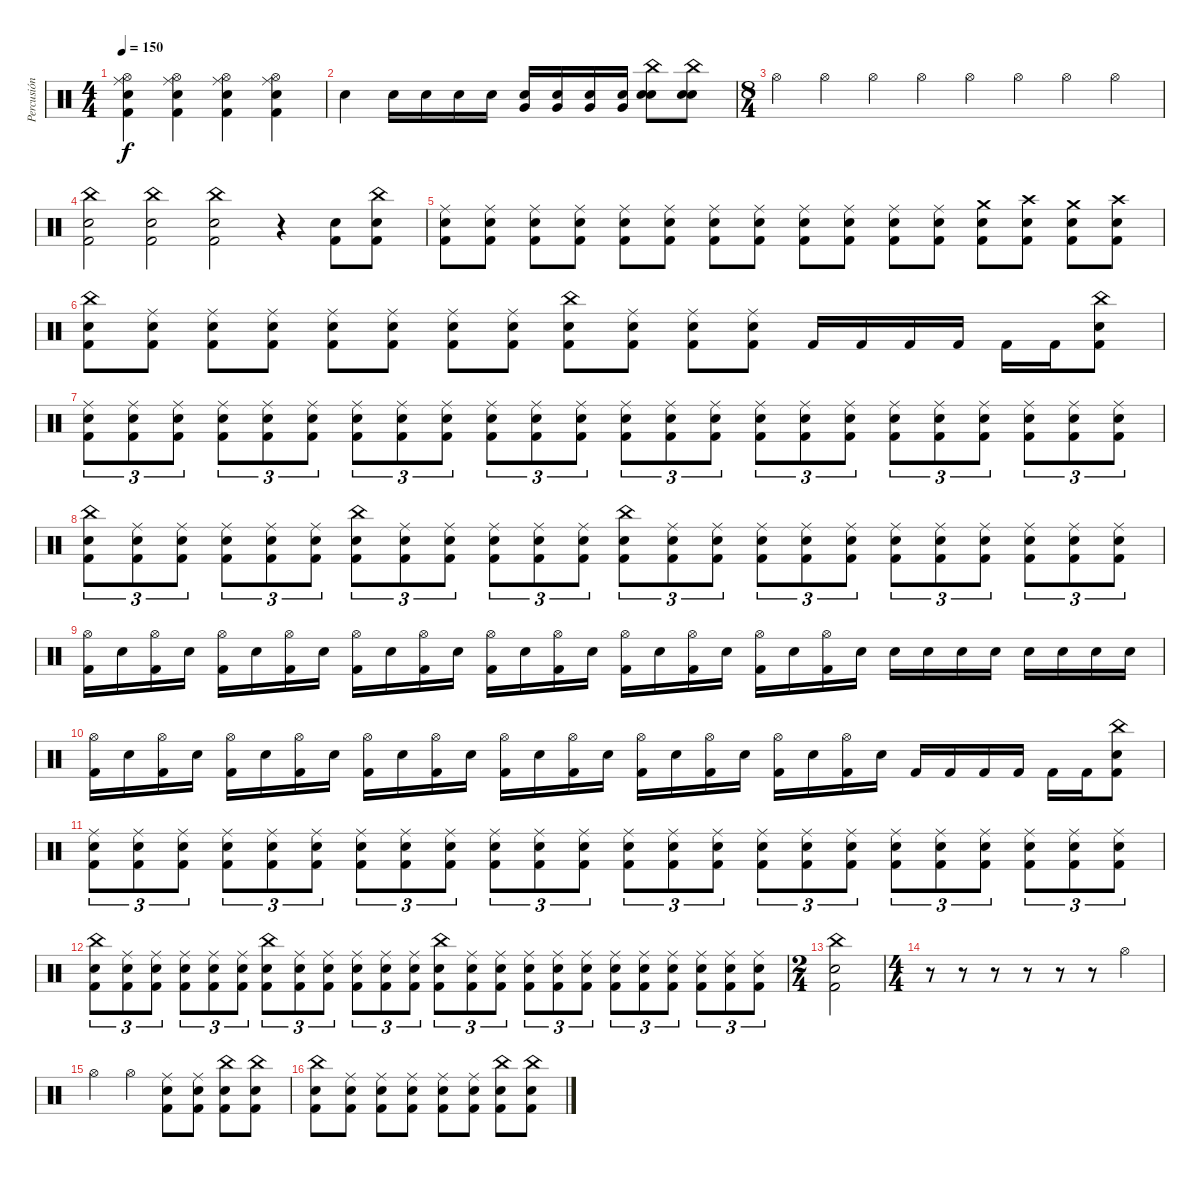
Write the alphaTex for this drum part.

\track ("Percusión" "Percusión") {instrument percussion}
\staff {score}
\articulation defaults
\ts (4 4)
\tempo 150
\clef neutral
\ks c
("Ride (middle)" "Hi-Hat (open)" "Electric Snare (hit)" "Kick (hit) 2").4{dy f} ("Ride (middle)" "Hi-Hat (open)" "Electric Snare (hit)" "Kick (hit) 2").4 ("Ride (middle)" "Hi-Hat (open)" "Electric Snare (hit)" "Kick (hit) 2").4 ("Ride (middle)" "Hi-Hat (open)" "Electric Snare (hit)" "Kick (hit) 2").4 |
"Electric Snare (hit)".4 "Electric Snare (hit)".16 "Electric Snare (hit)".16 "Electric Snare (hit)".16 "Electric Snare (hit)".16 ("Snare (hit) 2" "Very Low Tom (hit)").16 ("Snare (hit) 2" "Very Low Tom (hit)").16 ("Snare (hit) 2" "Very Low Tom (hit)").16 ("Snare (hit) 2" "Very Low Tom (hit)").16 ("China (hit)" "Electric Snare (hit)" "Snare (hit) 2").8 ("China (hit)" "Electric Snare (hit)" "Snare (hit) 2").8 |
\ts (8 4)
"Hi-Hat (open)".4 "Hi-Hat (open)".4 "Hi-Hat (open)".4 "Hi-Hat (open)".4 "Hi-Hat (open)".4 "Hi-Hat (open)".4 "Hi-Hat (open)".4 "Hi-Hat (open)".4 |
("China (hit)" "Electric Snare (hit)" "Kick (hit) 2").2 ("China (hit)" "Electric Snare (hit)" "Kick (hit) 2").2 ("China (hit)" "Electric Snare (hit)" "Kick (hit) 2").2 r.4 ("Electric Snare (hit)" "Kick (hit) 2").8 ("China (hit)" "Electric Snare (hit)" "Kick (hit) 2").8 |
("Ride (middle)" "Electric Snare (hit)" "Kick (hit) 2").8 ("Ride (middle)" "Electric Snare (hit)" "Kick (hit) 2").8 ("Ride (middle)" "Electric Snare (hit)" "Kick (hit) 2").8 ("Ride (middle)" "Electric Snare (hit)" "Kick (hit) 2").8 ("Ride (middle)" "Electric Snare (hit)" "Kick (hit) 2").8 ("Ride (middle)" "Electric Snare (hit)" "Kick (hit) 2").8 ("Ride (middle)" "Electric Snare (hit)" "Kick (hit) 2").8 ("Ride (middle)" "Electric Snare (hit)" "Kick (hit) 2").8 ("Ride (middle)" "Electric Snare (hit)" "Kick (hit) 2").8 ("Ride (middle)" "Electric Snare (hit)" "Kick (hit) 2").8 ("Ride (middle)" "Electric Snare (hit)" "Kick (hit) 2").8 ("Ride (middle)" "Electric Snare (hit)" "Kick (hit) 2").8 ("Crash medium (hit)" "Electric Snare (hit)" "Kick (hit) 2").8 ("Crash high (hit)" "Electric Snare (hit)" "Kick (hit) 2").8 ("Crash medium (hit)" "Electric Snare (hit)" "Kick (hit) 2").8 ("Crash high (hit)" "Electric Snare (hit)" "Kick (hit) 2").8 |
("China (hit)" "Electric Snare (hit)" "Kick (hit) 2").8 ("Ride (middle)" "Electric Snare (hit)" "Kick (hit) 2").8 ("Ride (middle)" "Electric Snare (hit)" "Kick (hit) 2").8 ("Ride (middle)" "Electric Snare (hit)" "Kick (hit) 2").8 ("Ride (middle)" "Electric Snare (hit)" "Kick (hit) 2").8 ("Ride (middle)" "Electric Snare (hit)" "Kick (hit) 2").8 ("Ride (middle)" "Electric Snare (hit)" "Kick (hit) 2").8 ("Ride (middle)" "Electric Snare (hit)" "Kick (hit) 2").8 ("China (hit)" "Electric Snare (hit)" "Kick (hit) 2").8 ("Ride (middle)" "Electric Snare (hit)" "Kick (hit) 2").8 ("Ride (middle)" "Electric Snare (hit)" "Kick (hit) 2").8 ("Ride (middle)" "Electric Snare (hit)" "Kick (hit) 2").8 "Kick (hit) 2".16 "Kick (hit) 2".16 "Kick (hit) 2".16 "Kick (hit) 2".16 "Kick (hit) 2".16 "Kick (hit) 2".16 ("China (hit)" "Electric Snare (hit)" "Kick (hit) 2").8 |
("Ride (middle)" "Electric Snare (hit)" "Kick (hit) 2").8{tu (3 2)} ("Ride (middle)" "Electric Snare (hit)" "Kick (hit) 2").8{tu (3 2)} ("Ride (middle)" "Electric Snare (hit)" "Kick (hit) 2").8{tu (3 2)} ("Ride (middle)" "Electric Snare (hit)" "Kick (hit) 2").8{tu (3 2)} ("Ride (middle)" "Electric Snare (hit)" "Kick (hit) 2").8{tu (3 2)} ("Ride (middle)" "Electric Snare (hit)" "Kick (hit) 2").8{tu (3 2)} ("Ride (middle)" "Electric Snare (hit)" "Kick (hit) 2").8{tu (3 2)} ("Ride (middle)" "Electric Snare (hit)" "Kick (hit) 2").8{tu (3 2)} ("Ride (middle)" "Electric Snare (hit)" "Kick (hit) 2").8{tu (3 2)} ("Ride (middle)" "Electric Snare (hit)" "Kick (hit) 2").8{tu (3 2)} ("Ride (middle)" "Electric Snare (hit)" "Kick (hit) 2").8{tu (3 2)} ("Ride (middle)" "Electric Snare (hit)" "Kick (hit) 2").8{tu (3 2)} ("Ride (middle)" "Electric Snare (hit)" "Kick (hit) 2").8{tu (3 2)} ("Ride (middle)" "Electric Snare (hit)" "Kick (hit) 2").8{tu (3 2)} ("Ride (middle)" "Electric Snare (hit)" "Kick (hit) 2").8{tu (3 2)} ("Ride (middle)" "Electric Snare (hit)" "Kick (hit) 2").8{tu (3 2)} ("Ride (middle)" "Electric Snare (hit)" "Kick (hit) 2").8{tu (3 2)} ("Ride (middle)" "Electric Snare (hit)" "Kick (hit) 2").8{tu (3 2)} ("Ride (middle)" "Electric Snare (hit)" "Kick (hit) 2").8{tu (3 2)} ("Ride (middle)" "Electric Snare (hit)" "Kick (hit) 2").8{tu (3 2)} ("Ride (middle)" "Electric Snare (hit)" "Kick (hit) 2").8{tu (3 2)} ("Ride (middle)" "Electric Snare (hit)" "Kick (hit) 2").8{tu (3 2)} ("Ride (middle)" "Electric Snare (hit)" "Kick (hit) 2").8{tu (3 2)} ("Ride (middle)" "Electric Snare (hit)" "Kick (hit) 2").8{tu (3 2)} |
("China (hit)" "Electric Snare (hit)" "Kick (hit) 2").8{tu (3 2)} ("Ride (middle)" "Electric Snare (hit)" "Kick (hit) 2").8{tu (3 2)} ("Ride (middle)" "Electric Snare (hit)" "Kick (hit) 2").8{tu (3 2)} ("Ride (middle)" "Electric Snare (hit)" "Kick (hit) 2").8{tu (3 2)} ("Ride (middle)" "Electric Snare (hit)" "Kick (hit) 2").8{tu (3 2)} ("Ride (middle)" "Electric Snare (hit)" "Kick (hit) 2").8{tu (3 2)} ("China (hit)" "Electric Snare (hit)" "Kick (hit) 2").8{tu (3 2)} ("Ride (middle)" "Electric Snare (hit)" "Kick (hit) 2").8{tu (3 2)} ("Ride (middle)" "Electric Snare (hit)" "Kick (hit) 2").8{tu (3 2)} ("Ride (middle)" "Electric Snare (hit)" "Kick (hit) 2").8{tu (3 2)} ("Ride (middle)" "Electric Snare (hit)" "Kick (hit) 2").8{tu (3 2)} ("Ride (middle)" "Electric Snare (hit)" "Kick (hit) 2").8{tu (3 2)} ("China (hit)" "Electric Snare (hit)" "Kick (hit) 2").8{tu (3 2)} ("Ride (middle)" "Electric Snare (hit)" "Kick (hit) 2").8{tu (3 2)} ("Ride (middle)" "Electric Snare (hit)" "Kick (hit) 2").8{tu (3 2)} ("Ride (middle)" "Electric Snare (hit)" "Kick (hit) 2").8{tu (3 2)} ("Ride (middle)" "Electric Snare (hit)" "Kick (hit) 2").8{tu (3 2)} ("Ride (middle)" "Electric Snare (hit)" "Kick (hit) 2").8{tu (3 2)} ("Ride (middle)" "Electric Snare (hit)" "Kick (hit) 2").8{tu (3 2)} ("Ride (middle)" "Electric Snare (hit)" "Kick (hit) 2").8{tu (3 2)} ("Ride (middle)" "Electric Snare (hit)" "Kick (hit) 2").8{tu (3 2)} ("Ride (middle)" "Electric Snare (hit)" "Kick (hit) 2").8{tu (3 2)} ("Ride (middle)" "Electric Snare (hit)" "Kick (hit) 2").8{tu (3 2)} ("Ride (middle)" "Electric Snare (hit)" "Kick (hit) 2").8{tu (3 2)} |
("Hi-Hat (open)" "Kick (hit) 2").16 "Electric Snare (hit)".16 ("Hi-Hat (open)" "Kick (hit) 2").16 "Electric Snare (hit)".16 ("Hi-Hat (open)" "Kick (hit) 2").16 "Electric Snare (hit)".16 ("Hi-Hat (open)" "Kick (hit) 2").16 "Electric Snare (hit)".16 ("Hi-Hat (open)" "Kick (hit) 2").16 "Electric Snare (hit)".16 ("Hi-Hat (open)" "Kick (hit) 2").16 "Electric Snare (hit)".16 ("Hi-Hat (open)" "Kick (hit) 2").16 "Electric Snare (hit)".16 ("Hi-Hat (open)" "Kick (hit) 2").16 "Electric Snare (hit)".16 ("Hi-Hat (open)" "Kick (hit) 2").16 "Electric Snare (hit)".16 ("Hi-Hat (open)" "Kick (hit) 2").16 "Electric Snare (hit)".16 ("Hi-Hat (open)" "Kick (hit) 2").16 "Electric Snare (hit)".16 ("Hi-Hat (open)" "Kick (hit) 2").16 "Electric Snare (hit)".16 "Electric Snare (hit)".16 "Electric Snare (hit)".16 "Electric Snare (hit)".16 "Electric Snare (hit)".16 "Electric Snare (hit)".16 "Electric Snare (hit)".16 "Electric Snare (hit)".16 "Electric Snare (hit)".16 |
("Hi-Hat (open)" "Kick (hit) 2").16 "Electric Snare (hit)".16 ("Hi-Hat (open)" "Kick (hit) 2").16 "Electric Snare (hit)".16 ("Hi-Hat (open)" "Kick (hit) 2").16 "Electric Snare (hit)".16 ("Hi-Hat (open)" "Kick (hit) 2").16 "Electric Snare (hit)".16 ("Hi-Hat (open)" "Kick (hit) 2").16 "Electric Snare (hit)".16 ("Hi-Hat (open)" "Kick (hit) 2").16 "Electric Snare (hit)".16 ("Hi-Hat (open)" "Kick (hit) 2").16 "Electric Snare (hit)".16 ("Hi-Hat (open)" "Kick (hit) 2").16 "Electric Snare (hit)".16 ("Hi-Hat (open)" "Kick (hit) 2").16 "Electric Snare (hit)".16 ("Hi-Hat (open)" "Kick (hit) 2").16 "Electric Snare (hit)".16 ("Hi-Hat (open)" "Kick (hit) 2").16 "Electric Snare (hit)".16 ("Hi-Hat (open)" "Kick (hit) 2").16 "Electric Snare (hit)".16 "Kick (hit) 2".16 "Kick (hit) 2".16 "Kick (hit) 2".16 "Kick (hit) 2".16 "Kick (hit) 2".16 "Kick (hit) 2".16 ("China (hit)" "Electric Snare (hit)" "Kick (hit) 2").8 |
("Ride (middle)" "Electric Snare (hit)" "Kick (hit) 2").8{tu (3 2)} ("Ride (middle)" "Electric Snare (hit)" "Kick (hit) 2").8{tu (3 2)} ("Ride (middle)" "Electric Snare (hit)" "Kick (hit) 2").8{tu (3 2)} ("Ride (middle)" "Electric Snare (hit)" "Kick (hit) 2").8{tu (3 2)} ("Ride (middle)" "Electric Snare (hit)" "Kick (hit) 2").8{tu (3 2)} ("Ride (middle)" "Electric Snare (hit)" "Kick (hit) 2").8{tu (3 2)} ("Ride (middle)" "Electric Snare (hit)" "Kick (hit) 2").8{tu (3 2)} ("Ride (middle)" "Electric Snare (hit)" "Kick (hit) 2").8{tu (3 2)} ("Ride (middle)" "Electric Snare (hit)" "Kick (hit) 2").8{tu (3 2)} ("Ride (middle)" "Electric Snare (hit)" "Kick (hit) 2").8{tu (3 2)} ("Ride (middle)" "Electric Snare (hit)" "Kick (hit) 2").8{tu (3 2)} ("Ride (middle)" "Electric Snare (hit)" "Kick (hit) 2").8{tu (3 2)} ("Ride (middle)" "Electric Snare (hit)" "Kick (hit) 2").8{tu (3 2)} ("Ride (middle)" "Electric Snare (hit)" "Kick (hit) 2").8{tu (3 2)} ("Ride (middle)" "Electric Snare (hit)" "Kick (hit) 2").8{tu (3 2)} ("Ride (middle)" "Electric Snare (hit)" "Kick (hit) 2").8{tu (3 2)} ("Ride (middle)" "Electric Snare (hit)" "Kick (hit) 2").8{tu (3 2)} ("Ride (middle)" "Electric Snare (hit)" "Kick (hit) 2").8{tu (3 2)} ("Ride (middle)" "Electric Snare (hit)" "Kick (hit) 2").8{tu (3 2)} ("Ride (middle)" "Electric Snare (hit)" "Kick (hit) 2").8{tu (3 2)} ("Ride (middle)" "Electric Snare (hit)" "Kick (hit) 2").8{tu (3 2)} ("Ride (middle)" "Electric Snare (hit)" "Kick (hit) 2").8{tu (3 2)} ("Ride (middle)" "Electric Snare (hit)" "Kick (hit) 2").8{tu (3 2)} ("Ride (middle)" "Electric Snare (hit)" "Kick (hit) 2").8{tu (3 2)} |
("China (hit)" "Electric Snare (hit)" "Kick (hit) 2").8{tu (3 2)} ("Ride (middle)" "Electric Snare (hit)" "Kick (hit) 2").8{tu (3 2)} ("Ride (middle)" "Electric Snare (hit)" "Kick (hit) 2").8{tu (3 2)} ("Ride (middle)" "Electric Snare (hit)" "Kick (hit) 2").8{tu (3 2)} ("Ride (middle)" "Electric Snare (hit)" "Kick (hit) 2").8{tu (3 2)} ("Ride (middle)" "Electric Snare (hit)" "Kick (hit) 2").8{tu (3 2)} ("China (hit)" "Electric Snare (hit)" "Kick (hit) 2").8{tu (3 2)} ("Ride (middle)" "Electric Snare (hit)" "Kick (hit) 2").8{tu (3 2)} ("Ride (middle)" "Electric Snare (hit)" "Kick (hit) 2").8{tu (3 2)} ("Ride (middle)" "Electric Snare (hit)" "Kick (hit) 2").8{tu (3 2)} ("Ride (middle)" "Electric Snare (hit)" "Kick (hit) 2").8{tu (3 2)} ("Ride (middle)" "Electric Snare (hit)" "Kick (hit) 2").8{tu (3 2)} ("China (hit)" "Electric Snare (hit)" "Kick (hit) 2").8{tu (3 2)} ("Ride (middle)" "Electric Snare (hit)" "Kick (hit) 2").8{tu (3 2)} ("Ride (middle)" "Electric Snare (hit)" "Kick (hit) 2").8{tu (3 2)} ("Ride (middle)" "Electric Snare (hit)" "Kick (hit) 2").8{tu (3 2)} ("Ride (middle)" "Electric Snare (hit)" "Kick (hit) 2").8{tu (3 2)} ("Ride (middle)" "Electric Snare (hit)" "Kick (hit) 2").8{tu (3 2)} ("Ride (middle)" "Electric Snare (hit)" "Kick (hit) 2").8{tu (3 2)} ("Ride (middle)" "Electric Snare (hit)" "Kick (hit) 2").8{tu (3 2)} ("Ride (middle)" "Electric Snare (hit)" "Kick (hit) 2").8{tu (3 2)} ("Ride (middle)" "Electric Snare (hit)" "Kick (hit) 2").8{tu (3 2)} ("Ride (middle)" "Electric Snare (hit)" "Kick (hit) 2").8{tu (3 2)} ("Ride (middle)" "Electric Snare (hit)" "Kick (hit) 2").8{tu (3 2)} |
\ts (2 4)
("China (hit)" "Electric Snare (hit)" "Kick (hit) 2").2 |
\ts (4 4)
r.8 r.8 r.8 r.8 r.8 r.8 "Hi-Hat (open)".4 |
"Hi-Hat (open)".4 "Hi-Hat (open)".4 ("Ride (middle)" "Electric Snare (hit)" "Kick (hit) 2").8 ("Ride (middle)" "Electric Snare (hit)" "Kick (hit) 2").8 ("China (hit)" "Electric Snare (hit)" "Kick (hit) 2").8 ("China (hit)" "Electric Snare (hit)" "Kick (hit) 2").8 |
("China (hit)" "Electric Snare (hit)" "Kick (hit) 2").8 ("Ride (middle)" "Electric Snare (hit)" "Kick (hit) 2").8 ("Ride (middle)" "Electric Snare (hit)" "Kick (hit) 2").8 ("Ride (middle)" "Electric Snare (hit)" "Kick (hit) 2").8 ("Ride (middle)" "Electric Snare (hit)" "Kick (hit) 2").8 ("Ride (middle)" "Electric Snare (hit)" "Kick (hit) 2").8 ("China (hit)" "Electric Snare (hit)" "Kick (hit) 2").8 ("China (hit)" "Electric Snare (hit)" "Kick (hit) 2").8
